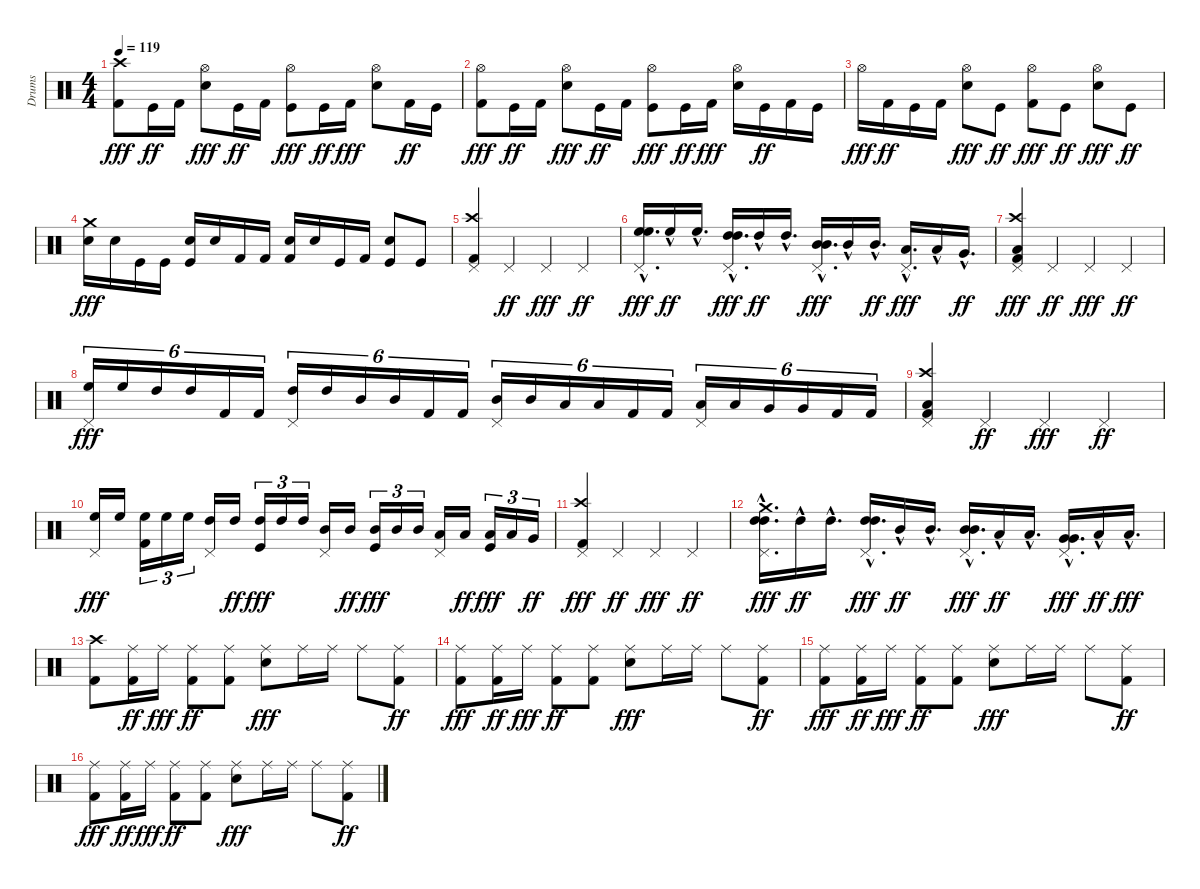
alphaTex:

\track ("Drums" "Drums") {instrument percussion}
\staff {score}
\articulation defaults
\ts (4 4)
\tempo 119
\clef neutral
\ks c
("Kick (hit) 2" "Crash high (hit)").8{dy fff} "Kick (hit)".16{dy ff} "Kick (hit) 2".16 ("Hi-Hat (open)" "Snare (hit) 2").8{dy fff} "Kick (hit)".16{dy ff} "Kick (hit) 2".16 ("Hi-Hat (open)" "Kick (hit)").8{dy fff} "Kick (hit)".16{dy ff} "Kick (hit) 2".16{dy fff} ("Hi-Hat (open)" "Snare (hit) 2").8 "Kick (hit) 2".16{dy ff} "Kick (hit)".16 |
("Hi-Hat (open)" "Kick (hit) 2").8{dy fff} "Kick (hit)".16{dy ff} "Kick (hit) 2".16 ("Hi-Hat (open)" "Snare (hit) 2").8{dy fff} "Kick (hit)".16{dy ff} "Kick (hit) 2".16 ("Hi-Hat (open)" "Kick (hit)").8{dy fff} "Kick (hit)".16{dy ff} "Kick (hit) 2".16{dy fff} ("Hi-Hat (open)" "Snare (hit) 2").16 "Kick (hit)".16{dy ff} "Kick (hit) 2".16 "Kick (hit)".16 |
"Hi-Hat (open)".16{dy fff} "Kick (hit) 2".16{dy ff} "Kick (hit)".16 "Kick (hit) 2".16 ("Hi-Hat (open)" "Snare (hit) 2").8{dy fff} "Kick (hit)".8{dy ff} ("Hi-Hat (open)" "Kick (hit) 2").8{dy fff} "Kick (hit)".8{dy ff} ("Hi-Hat (open)" "Electric Snare (hit)").8{dy fff} "Kick (hit)".8{dy ff} |
("Snare (hit) 2" "Crash medium (hit)").16{dy fff} "Snare (hit) 2".16 "Kick (hit)".16 "Kick (hit)".16 ("Kick (hit)" "Snare (hit) 2").16 "Snare (hit) 2".16 "Kick (hit) 2".16 "Kick (hit) 2".16 ("Kick (hit) 2" "Snare (hit) 2").16 "Snare (hit) 2".16 "Kick (hit)".16 "Kick (hit) 2".16 ("Kick (hit)" "Snare (hit) 2").8 "Kick (hit)".8 |
("Pedal Hi-Hat (hit)" "Kick (hit) 2" "Crash high (hit)").4 "Pedal Hi-Hat (hit)".4{dy ff} "Pedal Hi-Hat (hit)".4{dy fff} "Pedal Hi-Hat (hit)".4{dy ff} |
("Pedal Hi-Hat (hit)" "High Floor Tom (hit)"{hac} "High Floor Tom (hit)").16{d dy fff} "High Floor Tom (hit)"{hac}.16{dy ff} "High Floor Tom (hit)"{hac}.16{d} ("Pedal Hi-Hat (hit)" "High Tom (hit)"{hac} "High Tom (hit)").16{d dy fff} "High Tom (hit)"{hac}.16{dy ff} "High Tom (hit)"{hac}.16{d} ("Pedal Hi-Hat (hit)" "Mid Tom (hit)"{hac} "Mid Tom (hit)").16{d dy fff} "Mid Tom (hit)"{hac}.16 "Mid Tom (hit)"{hac}.16{d dy ff} ("Pedal Hi-Hat (hit)" "Low Tom (hit)"{hac}).16{d dy fff} "Low Tom (hit)"{hac}.16 "Very Low Tom (hit)"{hac}.16{d dy ff} |
("Pedal Hi-Hat (hit)" "Low Floor Tom (hit)" "Kick (hit) 2" "Crash high (hit)").4{dy fff} "Pedal Hi-Hat (hit)".4{dy ff} "Pedal Hi-Hat (hit)".4{dy fff} "Pedal Hi-Hat (hit)".4{dy ff} |
("Pedal Hi-Hat (hit)" "High Floor Tom (hit)").16{tu (6 4) dy fff} "High Floor Tom (hit)".16{tu (6 4)} "High Tom (hit)".16{tu (6 4)} "High Tom (hit)".16{tu (6 4)} "Kick (hit) 2".16{tu (6 4)} "Kick (hit) 2".16{tu (6 4)} ("Pedal Hi-Hat (hit)" "High Tom (hit)").16{tu (6 4)} "High Tom (hit)".16{tu (6 4)} "Mid Tom (hit)".16{tu (6 4)} "Mid Tom (hit)".16{tu (6 4)} "Kick (hit) 2".16{tu (6 4)} "Kick (hit) 2".16{tu (6 4)} ("Pedal Hi-Hat (hit)" "Mid Tom (hit)").16{tu (6 4)} "Mid Tom (hit)".16{tu (6 4)} "Low Tom (hit)".16{tu (6 4)} "Low Tom (hit)".16{tu (6 4)} "Kick (hit) 2".16{tu (6 4)} "Kick (hit) 2".16{tu (6 4)} ("Pedal Hi-Hat (hit)" "Low Tom (hit)").16{tu (6 4)} "Low Tom (hit)".16{tu (6 4)} "Very Low Tom (hit)".16{tu (6 4)} "Very Low Tom (hit)".16{tu (6 4)} "Kick (hit) 2".16{tu (6 4)} "Kick (hit) 2".16{tu (6 4)} |
("Pedal Hi-Hat (hit)" "Low Floor Tom (hit)" "Kick (hit) 2" "Crash high (hit)").4 "Pedal Hi-Hat (hit)".4{dy ff} "Pedal Hi-Hat (hit)".4{dy fff} "Pedal Hi-Hat (hit)".4{dy ff} |
("Pedal Hi-Hat (hit)" "High Floor Tom (hit)").16{dy fff} "High Floor Tom (hit)".16 ("Kick (hit) 2" "High Floor Tom (hit)").16{tu (3 2)} "High Floor Tom (hit)".16{tu (3 2)} "High Floor Tom (hit)".16{tu (3 2)} ("Pedal Hi-Hat (hit)" "High Tom (hit)").16 "High Tom (hit)".16{dy ff} ("Kick (hit)" "High Tom (hit)").16{tu (3 2) dy fff} "High Tom (hit)".16{tu (3 2)} "High Tom (hit)".16{tu (3 2)} ("Pedal Hi-Hat (hit)" "Mid Tom (hit)").16 "Mid Tom (hit)".16{dy ff} ("Kick (hit)" "Mid Tom (hit)").16{tu (3 2) dy fff} "Mid Tom (hit)".16{tu (3 2)} "Mid Tom (hit)".16{tu (3 2)} ("Pedal Hi-Hat (hit)" "Low Tom (hit)").16 "Low Tom (hit)".16{dy ff} ("Kick (hit)" "Low Tom (hit)").16{tu (3 2) dy fff} "Low Tom (hit)".16{tu (3 2)} "Very Low Tom (hit)".16{tu (3 2) dy ff} |
("Pedal Hi-Hat (hit)" "Kick (hit) 2" "Crash high (hit)").4{dy fff} "Pedal Hi-Hat (hit)".4{dy ff} "Pedal Hi-Hat (hit)".4{dy fff} "Pedal Hi-Hat (hit)".4{dy ff} |
("Pedal Hi-Hat (hit)" "High Tom (hit)"{hac} "Crash medium (hit)" "High Tom (hit)").16{d dy fff} "High Tom (hit)"{hac}.16{dy ff} "High Tom (hit)"{hac}.16{d} ("Pedal Hi-Hat (hit)" "High Tom (hit)"{hac} "High Tom (hit)"{hac}).16{d dy fff} "Mid Tom (hit)"{hac}.16{dy ff} "Mid Tom (hit)"{hac}.16{d} ("Pedal Hi-Hat (hit)" "Mid Tom (hit)"{hac} "Mid Tom (hit)"{hac}).16{d dy fff} "Low Tom (hit)"{hac}.16{dy ff} "Low Tom (hit)"{hac}.16{d} ("Pedal Hi-Hat (hit)" "Very Low Tom (hit)"{hac} "Very Low Tom (hit)"{hac}).16{d dy fff} "Low Floor Tom (hit)"{hac}.16{dy ff} "Low Floor Tom (hit)"{hac}.16{d dy fff} |
("Kick (hit) 2" "Crash high (hit)").8 ("Ride (middle)" "Kick (hit) 2").16{dy ff} "Ride (middle)".16{dy fff} ("Ride (middle)" "Kick (hit) 2").8{dy ff} ("Ride (middle)" "Kick (hit) 2").8 ("Ride (middle)" "Snare (hit) 2").8{dy fff} "Ride (middle)".16 "Ride (middle)".16 "Ride (middle)".8 ("Ride (middle)" "Kick (hit) 2").8{dy ff} |
("Ride (middle)" "Kick (hit) 2").8{dy fff} ("Ride (middle)" "Kick (hit) 2").16{dy ff} "Ride (middle)".16{dy fff} ("Ride (middle)" "Kick (hit) 2").8{dy ff} ("Ride (middle)" "Kick (hit) 2").8 ("Ride (middle)" "Snare (hit) 2").8{dy fff} "Ride (middle)".16 "Ride (middle)".16 "Ride (middle)".8 ("Ride (middle)" "Kick (hit) 2").8{dy ff} |
("Ride (middle)" "Kick (hit) 2").8{dy fff} ("Ride (middle)" "Kick (hit) 2").16{dy ff} "Ride (middle)".16{dy fff} ("Ride (middle)" "Kick (hit) 2").8{dy ff} ("Ride (middle)" "Kick (hit) 2").8 ("Ride (middle)" "Snare (hit) 2").8{dy fff} "Ride (middle)".16 "Ride (middle)".16 "Ride (middle)".8 ("Ride (middle)" "Kick (hit) 2").8{dy ff} |
("Ride (middle)" "Kick (hit) 2").8{dy fff} ("Ride (middle)" "Kick (hit) 2").16{dy ff} "Ride (middle)".16{dy fff} ("Ride (middle)" "Kick (hit) 2").8{dy ff} ("Ride (middle)" "Kick (hit) 2").8 ("Ride (middle)" "Snare (hit) 2").8{dy fff} "Ride (middle)".16 "Ride (middle)".16 "Ride (middle)".8 ("Ride (middle)" "Kick (hit) 2").8{dy ff}
